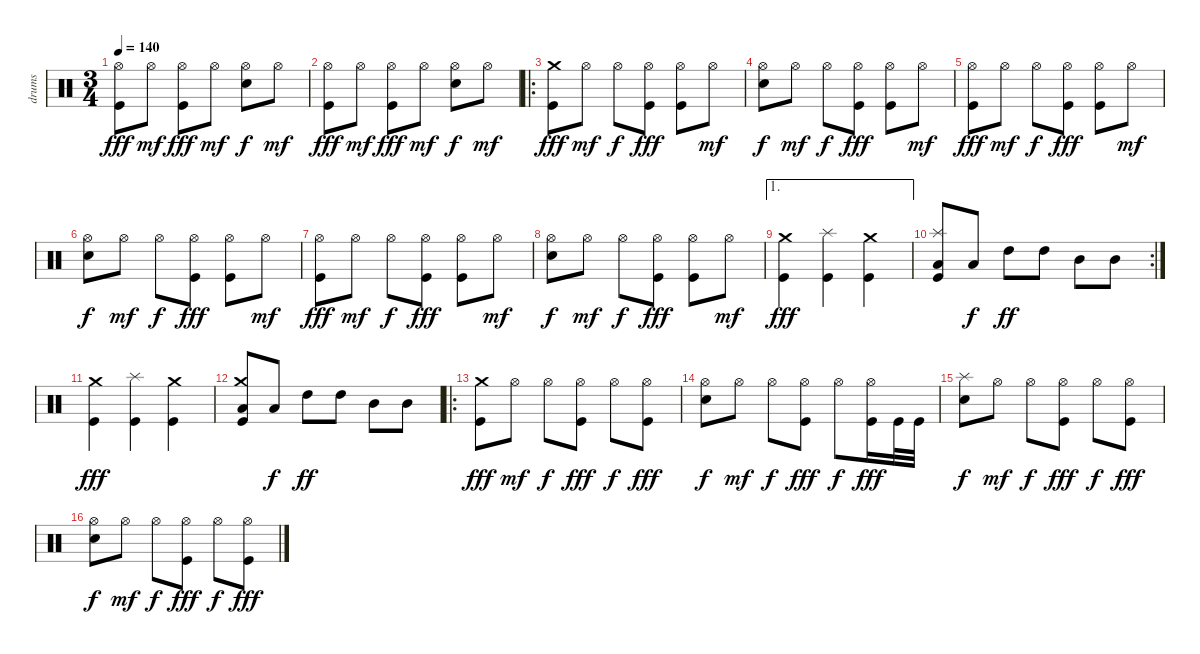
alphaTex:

\track ("drums" "drums") {instrument percussion}
\staff {score}
\articulation defaults
\ts (3 4)
\tempo 140
\clef neutral
\ks c
("Hi-Hat (open)" "Kick (hit)").8{dy fff} "Hi-Hat (open)".8{dy mf} ("Hi-Hat (open)" "Kick (hit)").8{dy fff} "Hi-Hat (open)".8{dy mf} ("Hi-Hat (open)" "Snare (hit) 2").8{dy f} "Hi-Hat (open)".8{dy mf} |
("Hi-Hat (open)" "Kick (hit)").8{dy fff} "Hi-Hat (open)".8{dy mf} ("Hi-Hat (open)" "Kick (hit)").8{dy fff} "Hi-Hat (open)".8{dy mf} ("Hi-Hat (open)" "Snare (hit) 2").8{dy f} "Hi-Hat (open)".8{dy mf} |
\ro
("Crash medium (hit)" "Kick (hit)").8{dy fff} "Hi-Hat (open)".8{dy mf} "Hi-Hat (open)".8{dy f} ("Hi-Hat (open)" "Kick (hit)").8{dy fff} ("Hi-Hat (open)" "Kick (hit)").8 "Hi-Hat (open)".8{dy mf} |
("Hi-Hat (open)" "Snare (hit) 2").8{dy f} "Hi-Hat (open)".8{dy mf} "Hi-Hat (open)".8{dy f} ("Hi-Hat (open)" "Kick (hit)").8{dy fff} ("Hi-Hat (open)" "Kick (hit)").8 "Hi-Hat (open)".8{dy mf} |
("Hi-Hat (open)" "Kick (hit)").8{dy fff} "Hi-Hat (open)".8{dy mf} "Hi-Hat (open)".8{dy f} ("Hi-Hat (open)" "Kick (hit)").8{dy fff} ("Hi-Hat (open)" "Kick (hit)").8 "Hi-Hat (open)".8{dy mf} |
("Hi-Hat (open)" "Snare (hit) 2").8{dy f} "Hi-Hat (open)".8{dy mf} "Hi-Hat (open)".8{dy f} ("Hi-Hat (open)" "Kick (hit)").8{dy fff} ("Hi-Hat (open)" "Kick (hit)").8 "Hi-Hat (open)".8{dy mf} |
("Hi-Hat (open)" "Kick (hit)").8{dy fff} "Hi-Hat (open)".8{dy mf} "Hi-Hat (open)".8{dy f} ("Hi-Hat (open)" "Kick (hit)").8{dy fff} ("Hi-Hat (open)" "Kick (hit)").8 "Hi-Hat (open)".8{dy mf} |
("Hi-Hat (open)" "Snare (hit) 2").8{dy f} "Hi-Hat (open)".8{dy mf} "Hi-Hat (open)".8{dy f} ("Hi-Hat (open)" "Kick (hit)").8{dy fff} ("Hi-Hat (open)" "Kick (hit)").8 "Hi-Hat (open)".8{dy mf} |
\ae 1
("Crash medium (hit)" "Kick (hit)").4{dy fff} ("Splash (hit)" "Kick (hit)").4 ("Crash medium (hit)" "Kick (hit)").4 |
\rc 2
("Splash (hit)" "Low Tom (hit)" "Kick (hit)").8 "Low Tom (hit)".8{dy f} "High Tom (hit)".8{dy ff} "High Tom (hit)".8 "Mid Tom (hit)".8 "Mid Tom (hit)".8 |
("Crash medium (hit)" "Kick (hit)").4{dy fff} ("Splash (hit)" "Kick (hit)").4 ("Crash medium (hit)" "Kick (hit)").4 |
("Crash medium (hit)" "Low Tom (hit)" "Kick (hit)").8 "Low Tom (hit)".8{dy f} "High Tom (hit)".8{dy ff} "High Tom (hit)".8 "Mid Tom (hit)".8 "Mid Tom (hit)".8 |
\ro
("Crash medium (hit)" "Kick (hit)").8{dy fff} "Hi-Hat (open)".8{dy mf} "Hi-Hat (open)".8{dy f} ("Hi-Hat (open)" "Kick (hit)").8{dy fff} "Hi-Hat (open)".8{dy f} ("Hi-Hat (open)" "Kick (hit)").8{dy fff} |
("Hi-Hat (open)" "Snare (hit) 2").8{dy f} "Hi-Hat (open)".8{dy mf} "Hi-Hat (open)".8{dy f} ("Hi-Hat (open)" "Kick (hit)").8{dy fff} "Hi-Hat (open)".8{dy f} ("Hi-Hat (open)" "Kick (hit)").16{dy fff} "Kick (hit)".32 "Kick (hit)".32 |
("Splash (hit)" "Snare (hit) 2").8{dy f} "Hi-Hat (open)".8{dy mf} "Hi-Hat (open)".8{dy f} ("Hi-Hat (open)" "Kick (hit)").8{dy fff} "Hi-Hat (open)".8{dy f} ("Hi-Hat (open)" "Kick (hit)").8{dy fff} |
("Hi-Hat (open)" "Snare (hit) 2").8{dy f} "Hi-Hat (open)".8{dy mf} "Hi-Hat (open)".8{dy f} ("Hi-Hat (open)" "Kick (hit)").8{dy fff} "Hi-Hat (open)".8{dy f} ("Hi-Hat (open)" "Kick (hit)").8{dy fff}
